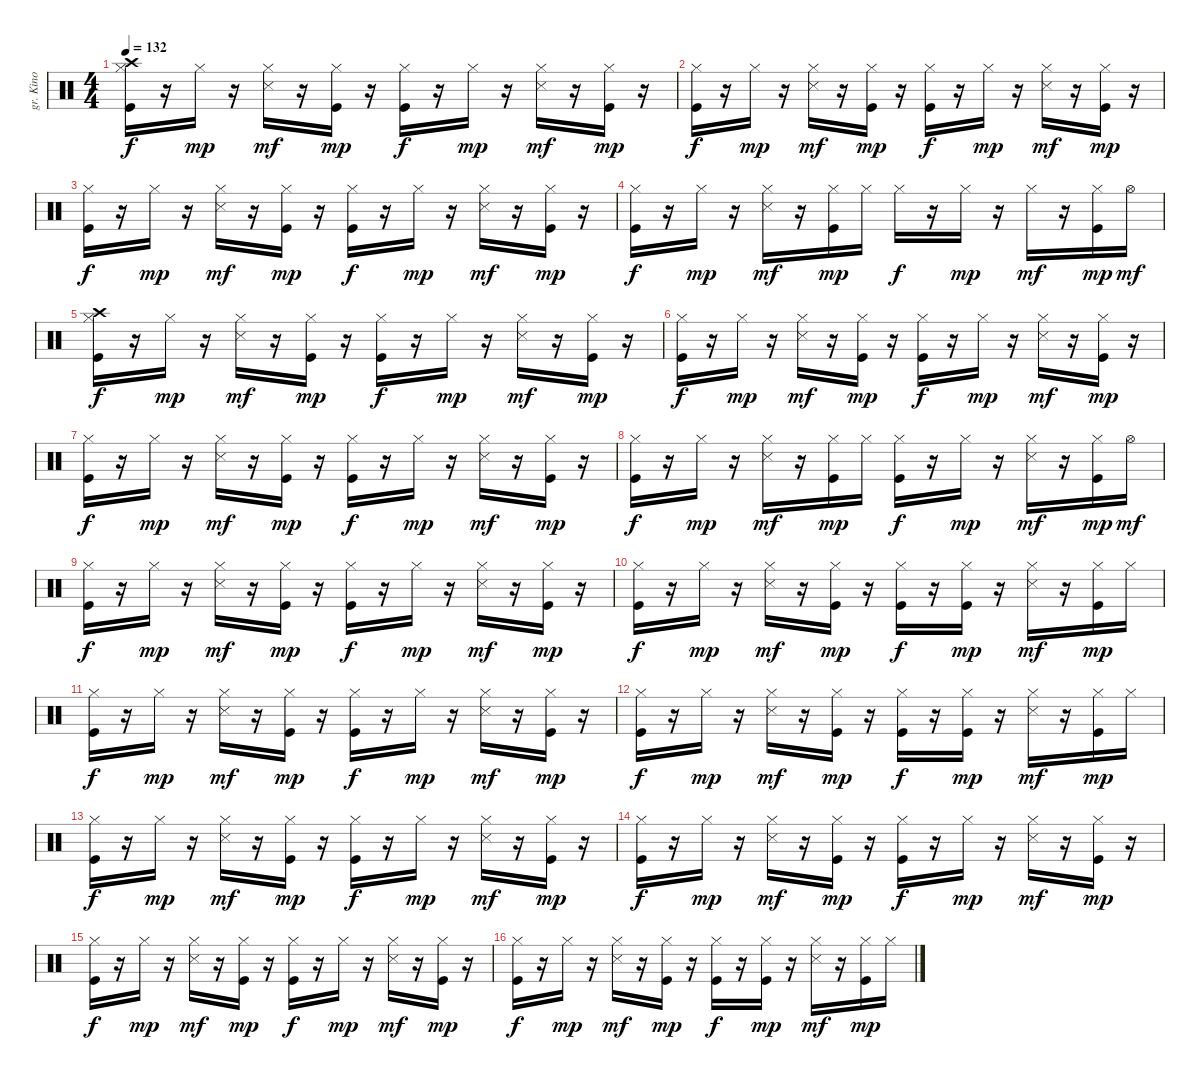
\track ("gr. Kino" "gr. Kino") {instrument percussion}
\staff {score}
\articulation defaults
\ts (4 4)
\tempo 132
\clef neutral
\ks c
("Kick (hit)" "Hi-Hat (closed)" "Crash high (hit)").16{dy f} r.16 "Hi-Hat (closed)".16{dy mp} r.16 ("Hi-Hat (closed)" "Snare (side stick) 3").16{dy mf} r.16 ("Kick (hit)" "Hi-Hat (closed)").16{dy mp} r.16 ("Kick (hit)" "Hi-Hat (closed)").16{dy f} r.16 "Hi-Hat (closed)".16{dy mp} r.16 ("Hi-Hat (closed)" "Snare (side stick) 3").16{dy mf} r.16 ("Kick (hit)" "Hi-Hat (closed)").16{dy mp} r.16 |
("Kick (hit)" "Hi-Hat (closed)").16{dy f} r.16 "Hi-Hat (closed)".16{dy mp} r.16 ("Hi-Hat (closed)" "Snare (side stick) 3").16{dy mf} r.16 ("Kick (hit)" "Hi-Hat (closed)").16{dy mp} r.16 ("Kick (hit)" "Hi-Hat (closed)").16{dy f} r.16 "Hi-Hat (closed)".16{dy mp} r.16 ("Hi-Hat (closed)" "Snare (side stick) 3").16{dy mf} r.16 ("Kick (hit)" "Hi-Hat (closed)").16{dy mp} r.16 |
("Kick (hit)" "Hi-Hat (closed)").16{dy f} r.16 "Hi-Hat (closed)".16{dy mp} r.16 ("Hi-Hat (closed)" "Snare (side stick) 3").16{dy mf} r.16 ("Kick (hit)" "Hi-Hat (closed)").16{dy mp} r.16 ("Kick (hit)" "Hi-Hat (closed)").16{dy f} r.16 "Hi-Hat (closed)".16{dy mp} r.16 ("Hi-Hat (closed)" "Snare (side stick) 3").16{dy mf} r.16 ("Kick (hit)" "Hi-Hat (closed)").16{dy mp} r.16 |
("Kick (hit)" "Hi-Hat (closed)").16{dy f} r.16 "Hi-Hat (closed)".16{dy mp} r.16 ("Hi-Hat (closed)" "Snare (side stick) 3").16{dy mf} r.16 ("Kick (hit)" "Hi-Hat (closed)").16{dy mp} "Hi-Hat (closed)".16 "Hi-Hat (closed)".16{dy f} r.16 "Hi-Hat (closed)".16{dy mp} r.16 "Hi-Hat (closed)".16{dy mf} r.16 ("Kick (hit)" "Hi-Hat (closed)").16{dy mp} "Hi-Hat (open)".16{dy mf} |
("Kick (hit)" "Hi-Hat (closed)" "Crash high (hit)").16{dy f} r.16 "Hi-Hat (closed)".16{dy mp} r.16 ("Hi-Hat (closed)" "Snare (side stick) 3").16{dy mf} r.16 ("Kick (hit)" "Hi-Hat (closed)").16{dy mp} r.16 ("Kick (hit)" "Hi-Hat (closed)").16{dy f} r.16 "Hi-Hat (closed)".16{dy mp} r.16 ("Hi-Hat (closed)" "Snare (side stick) 3").16{dy mf} r.16 ("Kick (hit)" "Hi-Hat (closed)").16{dy mp} r.16 |
("Kick (hit)" "Hi-Hat (closed)").16{dy f} r.16 "Hi-Hat (closed)".16{dy mp} r.16 ("Hi-Hat (closed)" "Snare (side stick) 3").16{dy mf} r.16 ("Kick (hit)" "Hi-Hat (closed)").16{dy mp} r.16 ("Kick (hit)" "Hi-Hat (closed)").16{dy f} r.16 "Hi-Hat (closed)".16{dy mp} r.16 ("Hi-Hat (closed)" "Snare (side stick) 3").16{dy mf} r.16 ("Kick (hit)" "Hi-Hat (closed)").16{dy mp} r.16 |
("Kick (hit)" "Hi-Hat (closed)").16{dy f} r.16 "Hi-Hat (closed)".16{dy mp} r.16 ("Hi-Hat (closed)" "Snare (side stick) 3").16{dy mf} r.16 ("Kick (hit)" "Hi-Hat (closed)").16{dy mp} r.16 ("Kick (hit)" "Hi-Hat (closed)").16{dy f} r.16 "Hi-Hat (closed)".16{dy mp} r.16 ("Hi-Hat (closed)" "Snare (side stick) 3").16{dy mf} r.16 ("Kick (hit)" "Hi-Hat (closed)").16{dy mp} r.16 |
("Kick (hit)" "Hi-Hat (closed)").16{dy f} r.16 "Hi-Hat (closed)".16{dy mp} r.16 ("Hi-Hat (closed)" "Snare (side stick) 3").16{dy mf} r.16 ("Kick (hit)" "Hi-Hat (closed)").16{dy mp} "Hi-Hat (closed)".16 ("Kick (hit)" "Hi-Hat (closed)").16{dy f} r.16 "Hi-Hat (closed)".16{dy mp} r.16 ("Hi-Hat (closed)" "Snare (side stick) 3").16{dy mf} r.16 ("Kick (hit)" "Hi-Hat (closed)").16{dy mp} "Hi-Hat (open)".16{dy mf} |
("Kick (hit)" "Hi-Hat (closed)").16{dy f} r.16 "Hi-Hat (closed)".16{dy mp} r.16 ("Hi-Hat (closed)" "Snare (side stick) 3").16{dy mf} r.16 ("Kick (hit)" "Hi-Hat (closed)").16{dy mp} r.16 ("Kick (hit)" "Hi-Hat (closed)").16{dy f} r.16 "Hi-Hat (closed)".16{dy mp} r.16 ("Hi-Hat (closed)" "Snare (side stick) 3").16{dy mf} r.16 ("Kick (hit)" "Hi-Hat (closed)").16{dy mp} r.16 |
("Kick (hit)" "Hi-Hat (closed)").16{dy f} r.16 "Hi-Hat (closed)".16{dy mp} r.16 ("Hi-Hat (closed)" "Snare (side stick) 3").16{dy mf} r.16 ("Kick (hit)" "Hi-Hat (closed)").16{dy mp} r.16 ("Kick (hit)" "Hi-Hat (closed)").16{dy f} r.16 ("Kick (hit)" "Hi-Hat (closed)").16{dy mp} r.16 ("Hi-Hat (closed)" "Snare (side stick) 3").16{dy mf} r.16 ("Kick (hit)" "Hi-Hat (closed)").16{dy mp} "Hi-Hat (closed)".16 |
("Kick (hit)" "Hi-Hat (closed)").16{dy f} r.16 "Hi-Hat (closed)".16{dy mp} r.16 ("Hi-Hat (closed)" "Snare (side stick) 3").16{dy mf} r.16 ("Kick (hit)" "Hi-Hat (closed)").16{dy mp} r.16 ("Kick (hit)" "Hi-Hat (closed)").16{dy f} r.16 "Hi-Hat (closed)".16{dy mp} r.16 ("Hi-Hat (closed)" "Snare (side stick) 3").16{dy mf} r.16 ("Kick (hit)" "Hi-Hat (closed)").16{dy mp} r.16 |
("Kick (hit)" "Hi-Hat (closed)").16{dy f} r.16 "Hi-Hat (closed)".16{dy mp} r.16 ("Hi-Hat (closed)" "Snare (side stick) 3").16{dy mf} r.16 ("Kick (hit)" "Hi-Hat (closed)").16{dy mp} r.16 ("Kick (hit)" "Hi-Hat (closed)").16{dy f} r.16 ("Kick (hit)" "Hi-Hat (closed)").16{dy mp} r.16 ("Hi-Hat (closed)" "Snare (side stick) 3").16{dy mf} r.16 ("Kick (hit)" "Hi-Hat (closed)").16{dy mp} "Hi-Hat (closed)".16 |
("Kick (hit)" "Hi-Hat (closed)").16{dy f} r.16 "Hi-Hat (closed)".16{dy mp} r.16 ("Hi-Hat (closed)" "Snare (side stick) 3").16{dy mf} r.16 ("Kick (hit)" "Hi-Hat (closed)").16{dy mp} r.16 ("Kick (hit)" "Hi-Hat (closed)").16{dy f} r.16 "Hi-Hat (closed)".16{dy mp} r.16 ("Hi-Hat (closed)" "Snare (side stick) 3").16{dy mf} r.16 ("Kick (hit)" "Hi-Hat (closed)").16{dy mp} r.16 |
("Kick (hit)" "Hi-Hat (closed)").16{dy f} r.16 "Hi-Hat (closed)".16{dy mp} r.16 ("Hi-Hat (closed)" "Snare (side stick) 3").16{dy mf} r.16 ("Kick (hit)" "Hi-Hat (closed)").16{dy mp} r.16 ("Kick (hit)" "Hi-Hat (closed)").16{dy f} r.16 "Hi-Hat (closed)".16{dy mp} r.16 ("Hi-Hat (closed)" "Snare (side stick) 3").16{dy mf} r.16 ("Kick (hit)" "Hi-Hat (closed)").16{dy mp} r.16 |
("Kick (hit)" "Hi-Hat (closed)").16{dy f} r.16 "Hi-Hat (closed)".16{dy mp} r.16 ("Hi-Hat (closed)" "Snare (side stick) 3").16{dy mf} r.16 ("Kick (hit)" "Hi-Hat (closed)").16{dy mp} r.16 ("Kick (hit)" "Hi-Hat (closed)").16{dy f} r.16 "Hi-Hat (closed)".16{dy mp} r.16 ("Hi-Hat (closed)" "Snare (side stick) 3").16{dy mf} r.16 ("Kick (hit)" "Hi-Hat (closed)").16{dy mp} r.16 |
("Kick (hit)" "Hi-Hat (closed)").16{dy f} r.16 "Hi-Hat (closed)".16{dy mp} r.16 ("Hi-Hat (closed)" "Snare (side stick) 3").16{dy mf} r.16 ("Kick (hit)" "Hi-Hat (closed)").16{dy mp} r.16 ("Kick (hit)" "Hi-Hat (closed)").16{dy f} r.16 ("Kick (hit)" "Hi-Hat (closed)").16{dy mp} r.16 ("Hi-Hat (closed)" "Snare (side stick) 3").16{dy mf} r.16 ("Kick (hit)" "Hi-Hat (closed)").16{dy mp} "Hi-Hat (closed)".16
